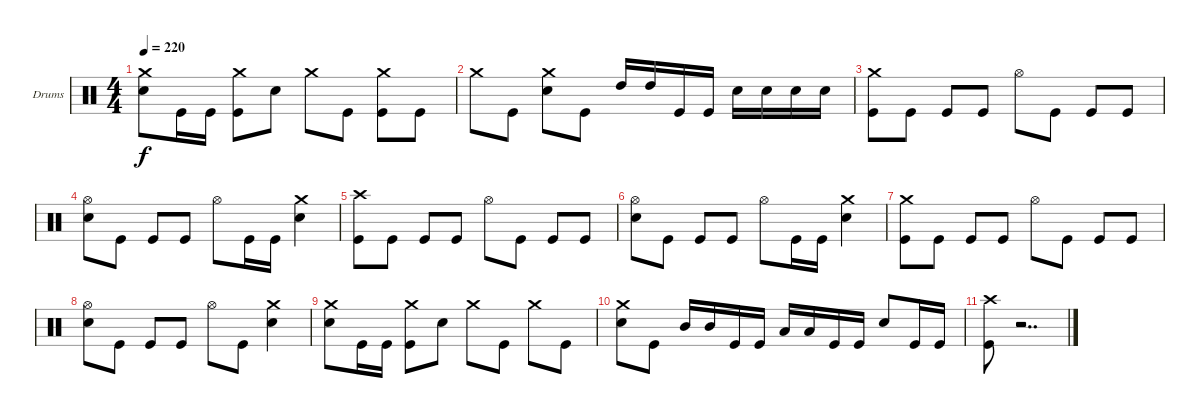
\bracketExtendMode groupsimilarinstruments
\firstSystemTrackNameOrientation horizontal
\otherSystemsTrackNameOrientation horizontal
\track ("Drumkit" "Drums") {instrument percussion}
\staff {score}
\articulation defaults
\ts (4 4)
\tempo 220
\clef neutral
\scale
0.513889
\ks c
("Crash medium (hit)" "Snare (hit) 2").8{dy f} "Kick (hit)".16 "Kick (hit)".16 ("Crash medium (hit)" "Kick (hit)").8 "Snare (hit) 2".8 "Crash medium (hit)".8 "Kick (hit)".8 ("Crash medium (hit)" "Kick (hit)").8 "Kick (hit)".8 |
\scale
0.569892 "Crash medium (hit)".8 "Kick (hit)".8 ("Crash medium (hit)" "Snare (hit) 2").8 "Kick (hit)".8 "High Tom (hit)".16 "High Tom (hit)".16 "Kick (hit)".16 "Kick (hit)".16 "Snare (hit) 2".16 "Snare (hit) 2".16 "Snare (hit) 2".16 "Snare (hit) 2".16 |
\scale
0.430108 ("Crash medium (hit)" "Kick (hit)").8 "Kick (hit)".8 "Kick (hit)".8 "Kick (hit)".8 "Hi-Hat (open)".8 "Kick (hit)".8 "Kick (hit)".8 "Kick (hit)".8 |
\scale
0.522388 ("Hi-Hat (open)" "Snare (hit) 2").8 "Kick (hit)".8 "Kick (hit)".8 "Kick (hit)".8 "Hi-Hat (open)".8 "Kick (hit)".16 "Kick (hit)".16 ("Crash medium (hit)" "Snare (hit) 2").4 |
\scale
0.477612 ("Crash high (hit)" "Kick (hit)").8 "Kick (hit)".8 "Kick (hit)".8 "Kick (hit)".8 "Hi-Hat (open)".8 "Kick (hit)".8 "Kick (hit)".8 "Kick (hit)".8 |
\scale
0.522388 ("Hi-Hat (open)" "Snare (hit) 2").8 "Kick (hit)".8 "Kick (hit)".8 "Kick (hit)".8 "Hi-Hat (open)".8 "Kick (hit)".16 "Kick (hit)".16 ("Crash medium (hit)" "Snare (hit) 2").4 |
\scale
0.477612 ("Crash medium (hit)" "Kick (hit)").8 "Kick (hit)".8 "Kick (hit)".8 "Kick (hit)".8 "Hi-Hat (open)".8 "Kick (hit)".8 "Kick (hit)".8 "Kick (hit)".8 |
\scale
0.447761 ("Hi-Hat (open)" "Snare (hit) 2").8 "Kick (hit)".8 "Kick (hit)".8 "Kick (hit)".8 "Hi-Hat (open)".8 "Kick (hit)".8 ("Crash medium (hit)" "Snare (hit) 2").4 |
\scale
0.552239 ("Crash medium (hit)" "Snare (hit) 2").8 "Kick (hit)".16 "Kick (hit)".16 ("Crash medium (hit)" "Kick (hit)").8 "Snare (hit) 2".8 "Crash medium (hit)".8 "Kick (hit)".8 "Crash medium (hit)".8 "Kick (hit)".8 |
\scale
0.717532 ("Crash medium (hit)" "Snare (hit) 2").8 "Kick (hit)".8 "Mid Tom (hit)".16 "Mid Tom (hit)".16 "Kick (hit)".16 "Kick (hit)".16 "Low Tom (hit)".16 "Low Tom (hit)".16 "Kick (hit)".16 "Kick (hit)".16 "Snare (hit) 2".8 "Kick (hit)".16 "Kick (hit)".16 |
\scale
0.282468 ("Crash high (hit)" "Kick (hit)").8 r.2{dd}
